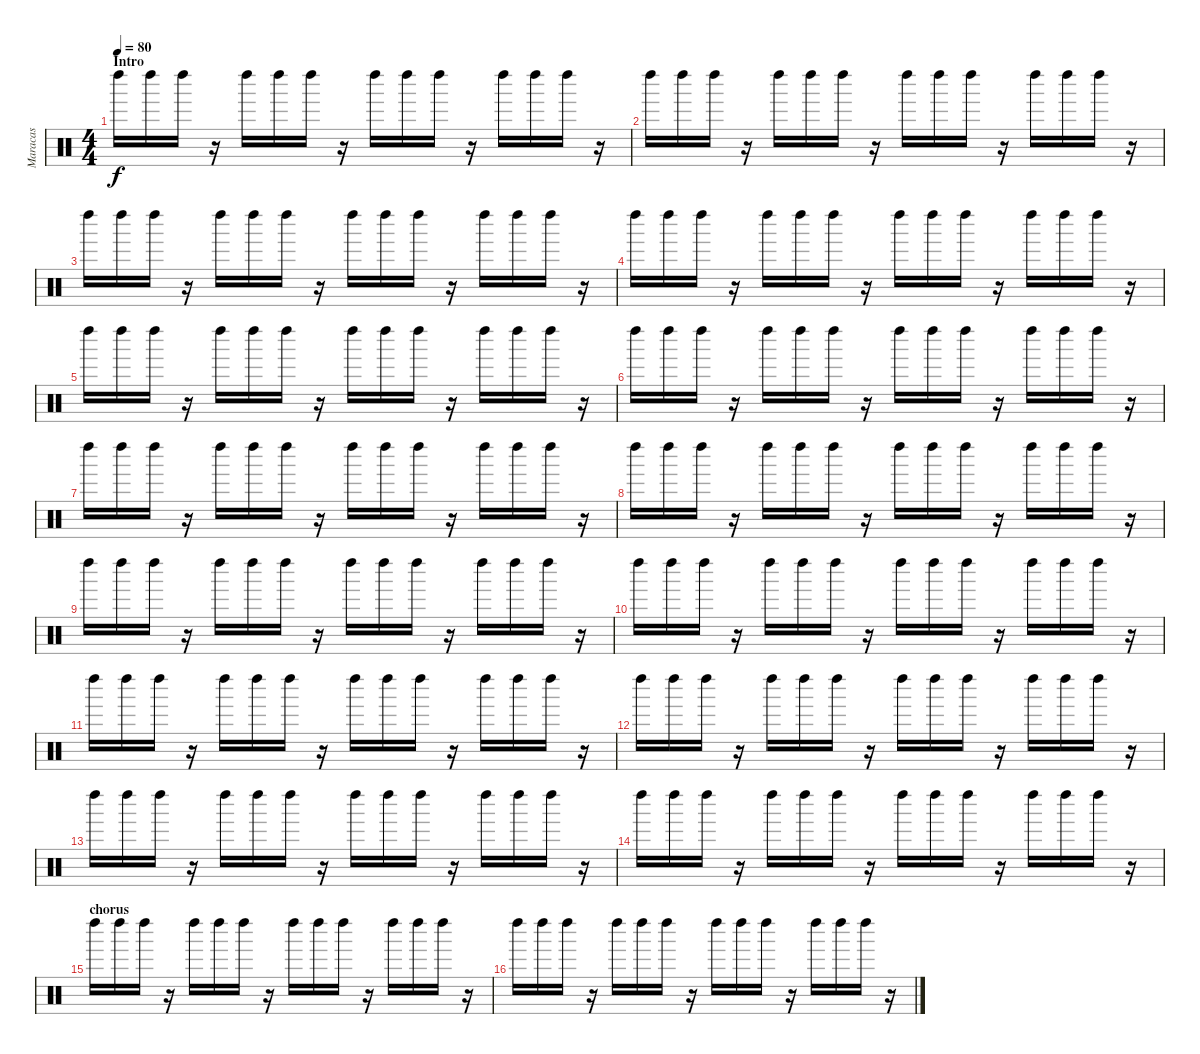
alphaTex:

\track ("Maracas" "Maracas") {instrument percussion}
\staff {score}
\articulation defaults
\ts (4 4)
\section ("" "Intro")
\tempo 80
\clef neutral
\ks c "Left Maraca (hit)".16{dy f} "Left Maraca (hit)".16 "Left Maraca (hit)".16
r.16 "Left Maraca (hit)".16 "Left Maraca (hit)".16 "Left Maraca (hit)".16 r.16 "Left Maraca (hit)".16 "Left Maraca (hit)".16 "Left Maraca (hit)".16 r.16 "Left Maraca (hit)".16 "Left Maraca (hit)".16 "Left Maraca (hit)".16 r.16 |
"Left Maraca (hit)".16 "Left Maraca (hit)".16 "Left Maraca (hit)".16 r.16 "Left Maraca (hit)".16 "Left Maraca (hit)".16 "Left Maraca (hit)".16 r.16 "Left Maraca (hit)".16 "Left Maraca (hit)".16 "Left Maraca (hit)".16 r.16 "Left Maraca (hit)".16 "Left Maraca (hit)".16 "Left Maraca (hit)".16 r.16 |
"Left Maraca (hit)".16 "Left Maraca (hit)".16 "Left Maraca (hit)".16 r.16 "Left Maraca (hit)".16 "Left Maraca (hit)".16 "Left Maraca (hit)".16 r.16 "Left Maraca (hit)".16 "Left Maraca (hit)".16 "Left Maraca (hit)".16 r.16 "Left Maraca (hit)".16 "Left Maraca (hit)".16 "Left Maraca (hit)".16 r.16 |
"Left Maraca (hit)".16 "Left Maraca (hit)".16 "Left Maraca (hit)".16 r.16 "Left Maraca (hit)".16 "Left Maraca (hit)".16 "Left Maraca (hit)".16 r.16 "Left Maraca (hit)".16 "Left Maraca (hit)".16 "Left Maraca (hit)".16 r.16 "Left Maraca (hit)".16 "Left Maraca (hit)".16 "Left Maraca (hit)".16 r.16 |
"Left Maraca (hit)".16 "Left Maraca (hit)".16 "Left Maraca (hit)".16 r.16 "Left Maraca (hit)".16 "Left Maraca (hit)".16 "Left Maraca (hit)".16 r.16 "Left Maraca (hit)".16 "Left Maraca (hit)".16 "Left Maraca (hit)".16 r.16 "Left Maraca (hit)".16 "Left Maraca (hit)".16 "Left Maraca (hit)".16 r.16 |
"Left Maraca (hit)".16 "Left Maraca (hit)".16 "Left Maraca (hit)".16 r.16 "Left Maraca (hit)".16 "Left Maraca (hit)".16 "Left Maraca (hit)".16 r.16 "Left Maraca (hit)".16 "Left Maraca (hit)".16 "Left Maraca (hit)".16 r.16 "Left Maraca (hit)".16 "Left Maraca (hit)".16 "Left Maraca (hit)".16 r.16 |
"Left Maraca (hit)".16 "Left Maraca (hit)".16 "Left Maraca (hit)".16 r.16 "Left Maraca (hit)".16 "Left Maraca (hit)".16 "Left Maraca (hit)".16 r.16 "Left Maraca (hit)".16 "Left Maraca (hit)".16 "Left Maraca (hit)".16 r.16 "Left Maraca (hit)".16 "Left Maraca (hit)".16 "Left Maraca (hit)".16 r.16 |
"Left Maraca (hit)".16 "Left Maraca (hit)".16 "Left Maraca (hit)".16 r.16 "Left Maraca (hit)".16 "Left Maraca (hit)".16 "Left Maraca (hit)".16 r.16 "Left Maraca (hit)".16 "Left Maraca (hit)".16 "Left Maraca (hit)".16 r.16 "Left Maraca (hit)".16 "Left Maraca (hit)".16 "Left Maraca (hit)".16 r.16 |
"Left Maraca (hit)".16 "Left Maraca (hit)".16 "Left Maraca (hit)".16 r.16 "Left Maraca (hit)".16 "Left Maraca (hit)".16 "Left Maraca (hit)".16 r.16 "Left Maraca (hit)".16 "Left Maraca (hit)".16 "Left Maraca (hit)".16 r.16 "Left Maraca (hit)".16 "Left Maraca (hit)".16 "Left Maraca (hit)".16 r.16 |
"Left Maraca (hit)".16 "Left Maraca (hit)".16 "Left Maraca (hit)".16 r.16 "Left Maraca (hit)".16 "Left Maraca (hit)".16 "Left Maraca (hit)".16 r.16 "Left Maraca (hit)".16 "Left Maraca (hit)".16 "Left Maraca (hit)".16 r.16 "Left Maraca (hit)".16 "Left Maraca (hit)".16 "Left Maraca (hit)".16 r.16 |
"Left Maraca (hit)".16 "Left Maraca (hit)".16 "Left Maraca (hit)".16 r.16 "Left Maraca (hit)".16 "Left Maraca (hit)".16 "Left Maraca (hit)".16 r.16 "Left Maraca (hit)".16 "Left Maraca (hit)".16 "Left Maraca (hit)".16 r.16 "Left Maraca (hit)".16 "Left Maraca (hit)".16 "Left Maraca (hit)".16 r.16 |
"Left Maraca (hit)".16 "Left Maraca (hit)".16 "Left Maraca (hit)".16 r.16 "Left Maraca (hit)".16 "Left Maraca (hit)".16 "Left Maraca (hit)".16 r.16 "Left Maraca (hit)".16 "Left Maraca (hit)".16 "Left Maraca (hit)".16 r.16 "Left Maraca (hit)".16 "Left Maraca (hit)".16 "Left Maraca (hit)".16 r.16 |
"Left Maraca (hit)".16 "Left Maraca (hit)".16 "Left Maraca (hit)".16 r.16 "Left Maraca (hit)".16 "Left Maraca (hit)".16 "Left Maraca (hit)".16 r.16 "Left Maraca (hit)".16 "Left Maraca (hit)".16 "Left Maraca (hit)".16 r.16 "Left Maraca (hit)".16 "Left Maraca (hit)".16 "Left Maraca (hit)".16 r.16 |
"Left Maraca (hit)".16 "Left Maraca (hit)".16 "Left Maraca (hit)".16 r.16 "Left Maraca (hit)".16 "Left Maraca (hit)".16 "Left Maraca (hit)".16 r.16 "Left Maraca (hit)".16 "Left Maraca (hit)".16 "Left Maraca (hit)".16 r.16 "Left Maraca (hit)".16 "Left Maraca (hit)".16 "Left Maraca (hit)".16 r.16 |
\section ("" "chorus")
"Left Maraca (hit)".16 "Left Maraca (hit)".16 "Left Maraca (hit)".16 r.16 "Left Maraca (hit)".16 "Left Maraca (hit)".16 "Left Maraca (hit)".16 r.16 "Left Maraca (hit)".16 "Left Maraca (hit)".16 "Left Maraca (hit)".16 r.16 "Left Maraca (hit)".16 "Left Maraca (hit)".16 "Left Maraca (hit)".16 r.16 |
"Left Maraca (hit)".16 "Left Maraca (hit)".16 "Left Maraca (hit)".16 r.16 "Left Maraca (hit)".16 "Left Maraca (hit)".16 "Left Maraca (hit)".16 r.16 "Left Maraca (hit)".16 "Left Maraca (hit)".16 "Left Maraca (hit)".16 r.16 "Left Maraca (hit)".16 "Left Maraca (hit)".16 "Left Maraca (hit)".16 r.16
